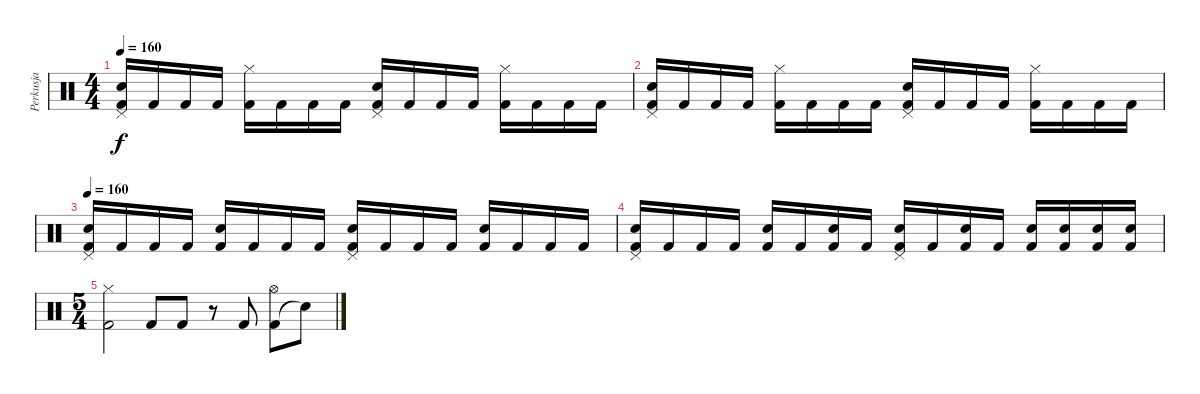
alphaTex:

\track ("Perkusja" "Perkusja") {instrument percussion}
\staff {score}
\articulation defaults
\ts (4 4)
\tempo 160
\clef neutral
\ks c
("Snare (hit) 2" "Kick (hit) 2" "Pedal Hi-Hat (hit)").16{dy f} "Kick (hit) 2".16 "Kick (hit) 2".16 "Kick (hit) 2".16 ("Hi-Hat (closed)" "Kick (hit) 2").16 "Kick (hit) 2".16 "Kick (hit) 2".16 "Kick (hit) 2".16 ("Snare (hit) 2" "Kick (hit) 2" "Pedal Hi-Hat (hit)").16 "Kick (hit) 2".16 "Kick (hit) 2".16 "Kick (hit) 2".16 ("Hi-Hat (closed)" "Kick (hit) 2").16 "Kick (hit) 2".16 "Kick (hit) 2".16 "Kick (hit) 2".16 |
("Snare (hit) 2" "Kick (hit) 2" "Pedal Hi-Hat (hit)").16 "Kick (hit) 2".16 "Kick (hit) 2".16 "Kick (hit) 2".16 ("Hi-Hat (closed)" "Kick (hit) 2").16 "Kick (hit) 2".16 "Kick (hit) 2".16 "Kick (hit) 2".16 ("Snare (hit) 2" "Kick (hit) 2" "Pedal Hi-Hat (hit)").16 "Kick (hit) 2".16 "Kick (hit) 2".16 "Kick (hit) 2".16 ("Hi-Hat (closed)" "Kick (hit) 2").16 "Kick (hit) 2".16 "Kick (hit) 2".16 "Kick (hit) 2".16 |
\tempo 160
("Snare (hit) 2" "Kick (hit) 2" "Pedal Hi-Hat (hit)").16 "Kick (hit) 2".16 "Kick (hit) 2".16 "Kick (hit) 2".16 ("Snare (hit) 2" "Kick (hit) 2").16 "Kick (hit) 2".16 "Kick (hit) 2".16 "Kick (hit) 2".16 ("Snare (hit) 2" "Kick (hit) 2" "Pedal Hi-Hat (hit)").16 "Kick (hit) 2".16 "Kick (hit) 2".16 "Kick (hit) 2".16 ("Snare (hit) 2" "Kick (hit) 2").16 "Kick (hit) 2".16 "Kick (hit) 2".16 "Kick (hit) 2".16 |
("Snare (hit) 2" "Kick (hit) 2" "Pedal Hi-Hat (hit)").16 "Kick (hit) 2".16 "Kick (hit) 2".16 "Kick (hit) 2".16 ("Snare (hit) 2" "Kick (hit) 2").16 "Kick (hit) 2".16 ("Snare (hit) 2" "Kick (hit) 2").16 "Kick (hit) 2".16 ("Snare (hit) 2" "Kick (hit) 2" "Pedal Hi-Hat (hit)").16 "Kick (hit) 2".16 ("Snare (hit) 2" "Kick (hit) 2").16 "Kick (hit) 2".16 ("Snare (hit) 2" "Kick (hit) 2").16 ("Snare (hit) 2" "Kick (hit) 2").16 ("Snare (hit) 2" "Kick (hit) 2").16 ("Snare (hit) 2" "Kick (hit) 2").16 |
\ts (5 4)
("Kick (hit) 2" "Hi-Hat (closed)").2 "Kick (hit) 2".8 "Kick (hit) 2".8 r.8 "Kick (hit) 2".8 ("Kick (hit) 2" "Hi-Hat (open)").8 "Snare (hit)"{t}.8
